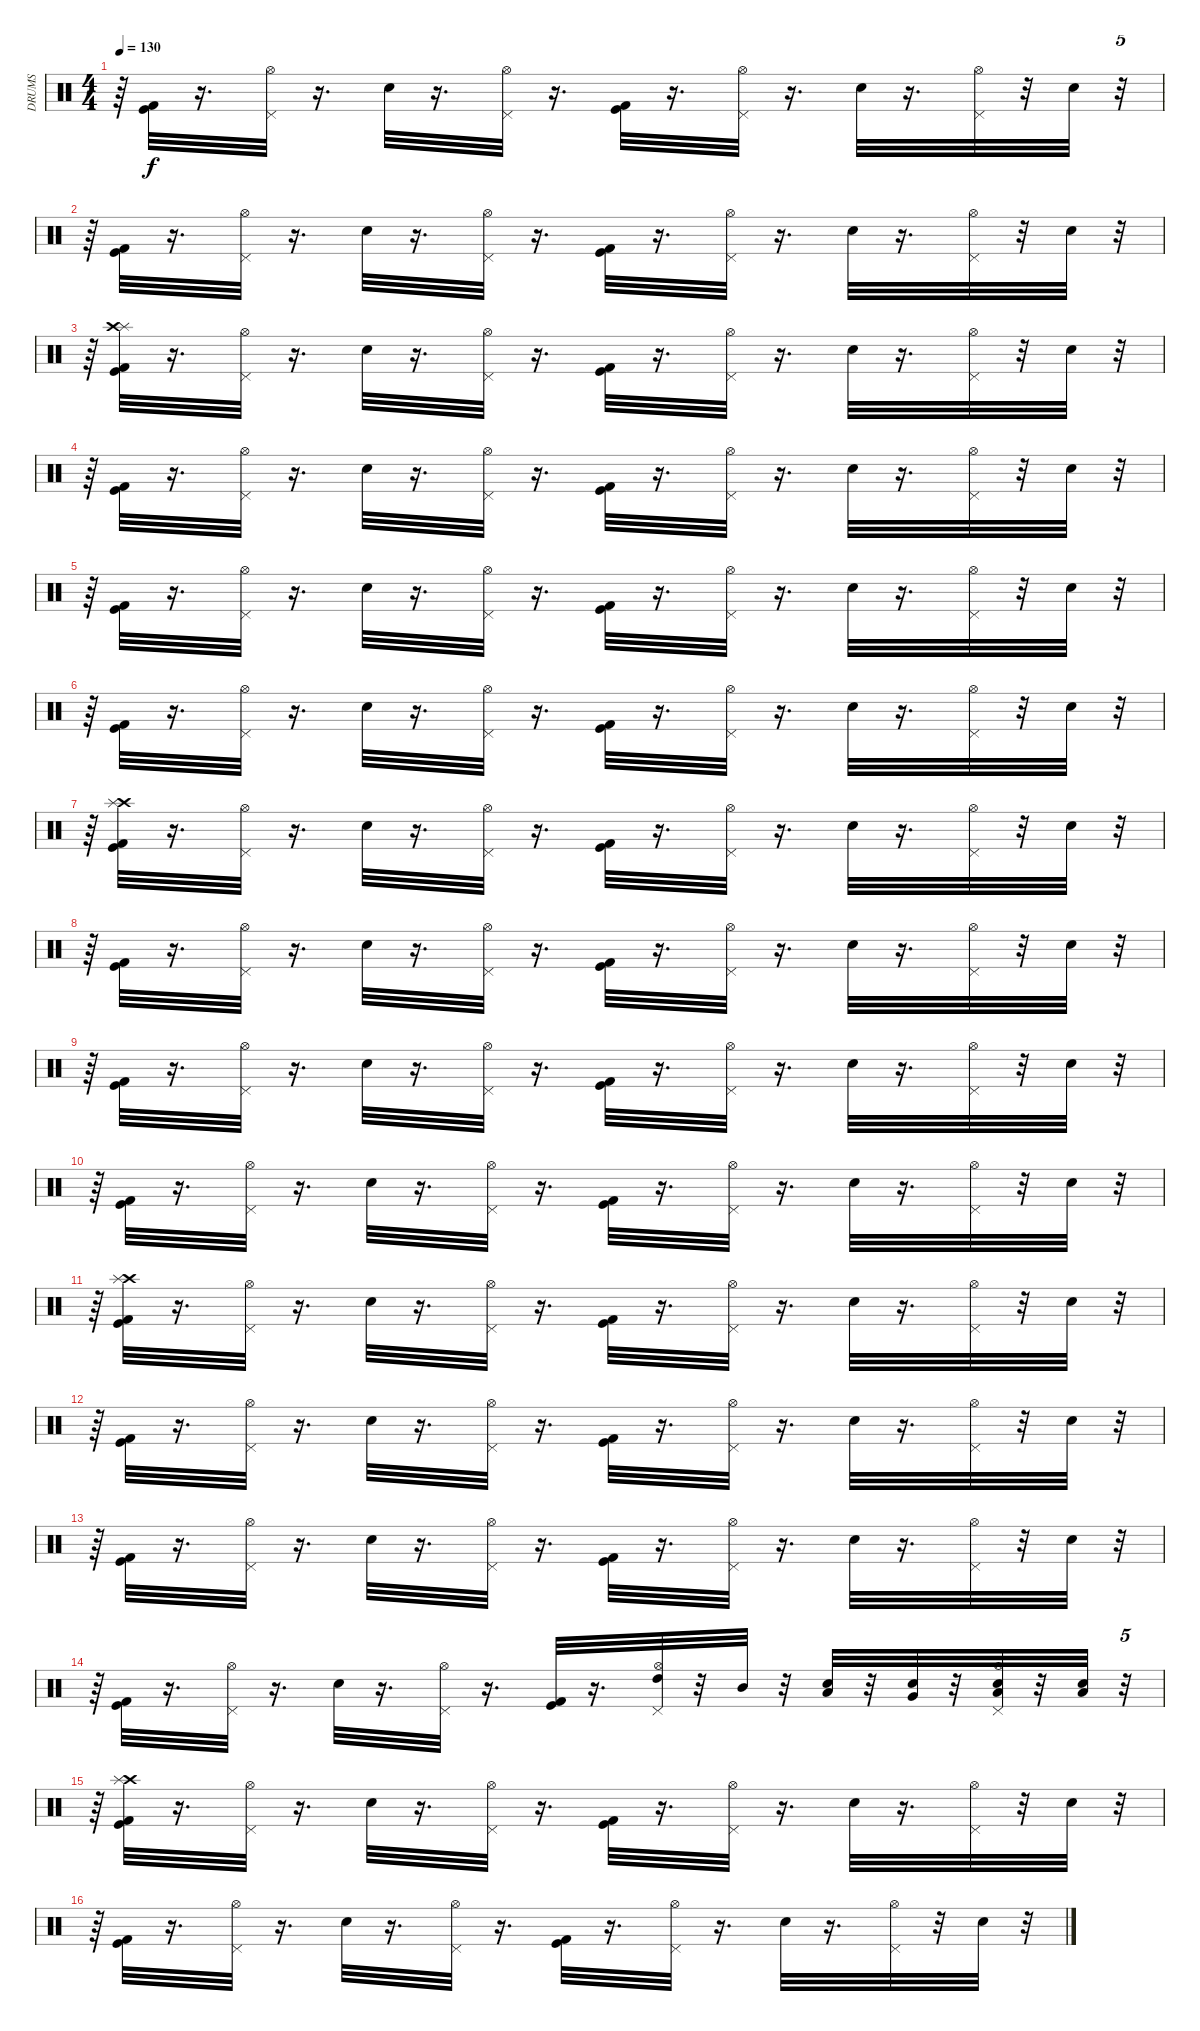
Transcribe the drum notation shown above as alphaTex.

\track ("DRUMS" "DRUMS") {instrument percussion}
\staff {score}
\articulation defaults
\ts (4 4)
\tempo 130
\clef neutral
\ks c
r.64{dy f} ("Kick (hit)" "Kick (hit) 2").32 r.16{d} ("Pedal Hi-Hat (hit)" "Hi-Hat (open)").32 r.16{d} "Electric Snare (hit)".32 r.16{d} ("Pedal Hi-Hat (hit)" "Hi-Hat (open)").32 r.16{d} ("Kick (hit) 2" "Kick (hit)").32 r.16{d} ("Pedal Hi-Hat (hit)" "Hi-Hat (open)").32 r.16{d} "Electric Snare (hit)".32 r.16{d} ("Pedal Hi-Hat (hit)" "Hi-Hat (open)").32 r.32 "Electric Snare (hit)".32 r.32{tu (5 4)} |
r.64 ("Kick (hit)" "Kick (hit) 2").32 r.16{d} ("Pedal Hi-Hat (hit)" "Hi-Hat (open)").32 r.16{d} "Electric Snare (hit)".32 r.16{d} ("Pedal Hi-Hat (hit)" "Hi-Hat (open)").32 r.16{d} ("Kick (hit) 2" "Kick (hit)").32 r.16{d} ("Pedal Hi-Hat (hit)" "Hi-Hat (open)").32 r.16{d} "Electric Snare (hit)".32 r.16{d} ("Pedal Hi-Hat (hit)" "Hi-Hat (open)").32 r.32 "Electric Snare (hit)".32 r.32{tu (5 4)} |
r.64 ("Splash (hit)" "Kick (hit)" "Kick (hit) 2" "Crash high (hit)").32 r.16{d} ("Pedal Hi-Hat (hit)" "Hi-Hat (open)").32 r.16{d} "Electric Snare (hit)".32 r.16{d} ("Pedal Hi-Hat (hit)" "Hi-Hat (open)").32 r.16{d} ("Kick (hit) 2" "Kick (hit)").32 r.16{d} ("Pedal Hi-Hat (hit)" "Hi-Hat (open)").32 r.16{d} "Electric Snare (hit)".32 r.16{d} ("Pedal Hi-Hat (hit)" "Hi-Hat (open)").32 r.32 "Electric Snare (hit)".32 r.32{tu (5 4)} |
r.64 ("Kick (hit)" "Kick (hit) 2").32 r.16{d} ("Pedal Hi-Hat (hit)" "Hi-Hat (open)").32 r.16{d} "Electric Snare (hit)".32 r.16{d} ("Pedal Hi-Hat (hit)" "Hi-Hat (open)").32 r.16{d} ("Kick (hit) 2" "Kick (hit)").32 r.16{d} ("Pedal Hi-Hat (hit)" "Hi-Hat (open)").32 r.16{d} "Electric Snare (hit)".32 r.16{d} ("Pedal Hi-Hat (hit)" "Hi-Hat (open)").32 r.32 "Electric Snare (hit)".32 r.32{tu (5 4)} |
r.64 ("Kick (hit)" "Kick (hit) 2").32 r.16{d} ("Pedal Hi-Hat (hit)" "Hi-Hat (open)").32 r.16{d} "Electric Snare (hit)".32 r.16{d} ("Pedal Hi-Hat (hit)" "Hi-Hat (open)").32 r.16{d} ("Kick (hit) 2" "Kick (hit)").32 r.16{d} ("Pedal Hi-Hat (hit)" "Hi-Hat (open)").32 r.16{d} "Electric Snare (hit)".32 r.16{d} ("Pedal Hi-Hat (hit)" "Hi-Hat (open)").32 r.32 "Electric Snare (hit)".32 r.32{tu (5 4)} |
r.64 ("Kick (hit)" "Kick (hit) 2").32 r.16{d} ("Pedal Hi-Hat (hit)" "Hi-Hat (open)").32 r.16{d} "Electric Snare (hit)".32 r.16{d} ("Pedal Hi-Hat (hit)" "Hi-Hat (open)").32 r.16{d} ("Kick (hit) 2" "Kick (hit)").32 r.16{d} ("Pedal Hi-Hat (hit)" "Hi-Hat (open)").32 r.16{d} "Electric Snare (hit)".32 r.16{d} ("Pedal Hi-Hat (hit)" "Hi-Hat (open)").32 r.32 "Electric Snare (hit)".32 r.32{tu (5 4)} |
r.64 ("Crash high (hit)" "Kick (hit)" "Kick (hit) 2" "Splash (hit)").32 r.16{d} ("Pedal Hi-Hat (hit)" "Hi-Hat (open)").32 r.16{d} "Electric Snare (hit)".32 r.16{d} ("Pedal Hi-Hat (hit)" "Hi-Hat (open)").32 r.16{d} ("Kick (hit) 2" "Kick (hit)").32 r.16{d} ("Pedal Hi-Hat (hit)" "Hi-Hat (open)").32 r.16{d} "Electric Snare (hit)".32 r.16{d} ("Pedal Hi-Hat (hit)" "Hi-Hat (open)").32 r.32 "Electric Snare (hit)".32 r.32{tu (5 4)} |
r.64 ("Kick (hit)" "Kick (hit) 2").32 r.16{d} ("Pedal Hi-Hat (hit)" "Hi-Hat (open)").32 r.16{d} "Electric Snare (hit)".32 r.16{d} ("Pedal Hi-Hat (hit)" "Hi-Hat (open)").32 r.16{d} ("Kick (hit) 2" "Kick (hit)").32 r.16{d} ("Pedal Hi-Hat (hit)" "Hi-Hat (open)").32 r.16{d} "Electric Snare (hit)".32 r.16{d} ("Pedal Hi-Hat (hit)" "Hi-Hat (open)").32 r.32 "Electric Snare (hit)".32 r.32{tu (5 4)} |
r.64 ("Kick (hit)" "Kick (hit) 2").32 r.16{d} ("Pedal Hi-Hat (hit)" "Hi-Hat (open)").32 r.16{d} "Electric Snare (hit)".32 r.16{d} ("Pedal Hi-Hat (hit)" "Hi-Hat (open)").32 r.16{d} ("Kick (hit) 2" "Kick (hit)").32 r.16{d} ("Pedal Hi-Hat (hit)" "Hi-Hat (open)").32 r.16{d} "Electric Snare (hit)".32 r.16{d} ("Pedal Hi-Hat (hit)" "Hi-Hat (open)").32 r.32 "Electric Snare (hit)".32 r.32{tu (5 4)} |
r.64 ("Kick (hit)" "Kick (hit) 2").32 r.16{d} ("Pedal Hi-Hat (hit)" "Hi-Hat (open)").32 r.16{d} "Electric Snare (hit)".32 r.16{d} ("Pedal Hi-Hat (hit)" "Hi-Hat (open)").32 r.16{d} ("Kick (hit) 2" "Kick (hit)").32 r.16{d} ("Pedal Hi-Hat (hit)" "Hi-Hat (open)").32 r.16{d} "Electric Snare (hit)".32 r.16{d} ("Pedal Hi-Hat (hit)" "Hi-Hat (open)").32 r.32 "Electric Snare (hit)".32 r.32{tu (5 4)} |
r.64 ("Crash high (hit)" "Kick (hit)" "Kick (hit) 2" "Splash (hit)").32 r.16{d} ("Pedal Hi-Hat (hit)" "Hi-Hat (open)").32 r.16{d} "Electric Snare (hit)".32 r.16{d} ("Pedal Hi-Hat (hit)" "Hi-Hat (open)").32 r.16{d} ("Kick (hit) 2" "Kick (hit)").32 r.16{d} ("Pedal Hi-Hat (hit)" "Hi-Hat (open)").32 r.16{d} "Electric Snare (hit)".32 r.16{d} ("Pedal Hi-Hat (hit)" "Hi-Hat (open)").32 r.32 "Electric Snare (hit)".32 r.32{tu (5 4)} |
r.64 ("Kick (hit)" "Kick (hit) 2").32 r.16{d} ("Pedal Hi-Hat (hit)" "Hi-Hat (open)").32 r.16{d} "Electric Snare (hit)".32 r.16{d} ("Pedal Hi-Hat (hit)" "Hi-Hat (open)").32 r.16{d} ("Kick (hit) 2" "Kick (hit)").32 r.16{d} ("Pedal Hi-Hat (hit)" "Hi-Hat (open)").32 r.16{d} "Electric Snare (hit)".32 r.16{d} ("Pedal Hi-Hat (hit)" "Hi-Hat (open)").32 r.32 "Electric Snare (hit)".32 r.32{tu (5 4)} |
r.64 ("Kick (hit)" "Kick (hit) 2").32 r.16{d} ("Pedal Hi-Hat (hit)" "Hi-Hat (open)").32 r.16{d} "Electric Snare (hit)".32 r.16{d} ("Pedal Hi-Hat (hit)" "Hi-Hat (open)").32 r.16{d} ("Kick (hit) 2" "Kick (hit)").32 r.16{d} ("Pedal Hi-Hat (hit)" "Hi-Hat (open)").32 r.16{d} "Electric Snare (hit)".32 r.16{d} ("Pedal Hi-Hat (hit)" "Hi-Hat (open)").32 r.32 "Electric Snare (hit)".32 r.32{tu (5 4)} |
r.64 ("Kick (hit)" "Kick (hit) 2").32 r.16{d} ("Pedal Hi-Hat (hit)" "Hi-Hat (open)").32 r.16{d} "Electric Snare (hit)".32 r.16{d} ("Pedal Hi-Hat (hit)" "Hi-Hat (open)").32 r.16{d} ("Kick (hit) 2" "Kick (hit)").32 r.16{d} ("High Tom (hit)" "Pedal Hi-Hat (hit)" "Hi-Hat (open)").32 r.32 "Mid Tom (hit)".32 r.32 ("Low Tom (hit)" "Electric Snare (hit)").32 r.32 ("Very Low Tom (hit)" "Electric Snare (hit)").32 r.32 ("Pedal Hi-Hat (hit)" "Electric Snare (hit)" "Low Floor Tom (hit)" "Hi-Hat (open)").32 r.32 ("Low Floor Tom (hit)" "Electric Snare (hit)").32 r.32{tu (5 4)} |
r.64 ("Crash high (hit)" "Splash (hit)" "Kick (hit)" "Kick (hit) 2").32 r.16{d} ("Pedal Hi-Hat (hit)" "Hi-Hat (open)").32 r.16{d} "Electric Snare (hit)".32 r.16{d} ("Pedal Hi-Hat (hit)" "Hi-Hat (open)").32 r.16{d} ("Kick (hit) 2" "Kick (hit)").32 r.16{d} ("Pedal Hi-Hat (hit)" "Hi-Hat (open)").32 r.16{d} "Electric Snare (hit)".32 r.16{d} ("Pedal Hi-Hat (hit)" "Hi-Hat (open)").32 r.32 "Electric Snare (hit)".32 r.32{tu (5 4)} |
r.64 ("Kick (hit)" "Kick (hit) 2").32 r.16{d} ("Pedal Hi-Hat (hit)" "Hi-Hat (open)").32 r.16{d} "Electric Snare (hit)".32 r.16{d} ("Pedal Hi-Hat (hit)" "Hi-Hat (open)").32 r.16{d} ("Kick (hit) 2" "Kick (hit)").32 r.16{d} ("Pedal Hi-Hat (hit)" "Hi-Hat (open)").32 r.16{d} "Electric Snare (hit)".32 r.16{d} ("Pedal Hi-Hat (hit)" "Hi-Hat (open)").32 r.32 "Electric Snare (hit)".32 r.32{tu (5 4)}
